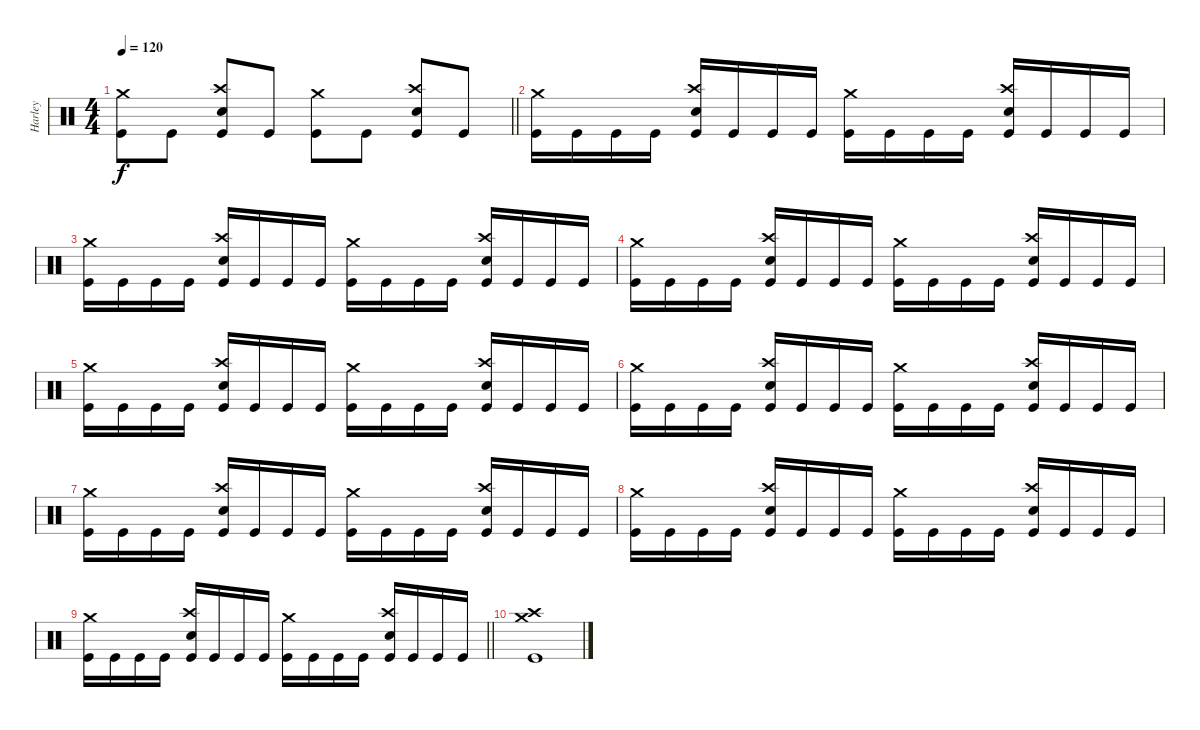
\track ("Harley" "Harley") {instrument percussion}
\staff {score}
\articulation defaults
\ts (4 4)
\tempo 120
\clef neutral
\barLineRight lightlight
\ks c
("Crash medium (hit)" "Kick (hit)").8{dy f} "Kick (hit)".8 ("Crash high (hit)" "Snare (hit) 2" "Kick (hit)").8 "Kick (hit)".8 ("Crash medium (hit)" "Kick (hit)").8 "Kick (hit)".8 ("Crash high (hit)" "Snare (hit) 2" "Kick (hit)").8 "Kick (hit)".8 |
("Crash medium (hit)" "Kick (hit)").16 "Kick (hit)".16 "Kick (hit)".16 "Kick (hit)".16 ("Crash high (hit)" "Snare (hit) 2" "Kick (hit)").16 "Kick (hit)".16 "Kick (hit)".16 "Kick (hit)".16 ("Crash medium (hit)" "Kick (hit)").16 "Kick (hit)".16 "Kick (hit)".16 "Kick (hit)".16 ("Crash high (hit)" "Snare (hit) 2" "Kick (hit)").16 "Kick (hit)".16 "Kick (hit)".16 "Kick (hit)".16 |
("Crash medium (hit)" "Kick (hit)").16 "Kick (hit)".16 "Kick (hit)".16 "Kick (hit)".16 ("Crash high (hit)" "Snare (hit) 2" "Kick (hit)").16 "Kick (hit)".16 "Kick (hit)".16 "Kick (hit)".16 ("Crash medium (hit)" "Kick (hit)").16 "Kick (hit)".16 "Kick (hit)".16 "Kick (hit)".16 ("Crash high (hit)" "Snare (hit) 2" "Kick (hit)").16 "Kick (hit)".16 "Kick (hit)".16 "Kick (hit)".16 |
("Crash medium (hit)" "Kick (hit)").16 "Kick (hit)".16 "Kick (hit)".16 "Kick (hit)".16 ("Crash high (hit)" "Snare (hit) 2" "Kick (hit)").16 "Kick (hit)".16 "Kick (hit)".16 "Kick (hit)".16 ("Crash medium (hit)" "Kick (hit)").16 "Kick (hit)".16 "Kick (hit)".16 "Kick (hit)".16 ("Crash high (hit)" "Snare (hit) 2" "Kick (hit)").16 "Kick (hit)".16 "Kick (hit)".16 "Kick (hit)".16 |
("Crash medium (hit)" "Kick (hit)").16 "Kick (hit)".16 "Kick (hit)".16 "Kick (hit)".16 ("Crash high (hit)" "Snare (hit) 2" "Kick (hit)").16 "Kick (hit)".16 "Kick (hit)".16 "Kick (hit)".16 ("Crash medium (hit)" "Kick (hit)").16 "Kick (hit)".16 "Kick (hit)".16 "Kick (hit)".16 ("Crash high (hit)" "Snare (hit) 2" "Kick (hit)").16 "Kick (hit)".16 "Kick (hit)".16 "Kick (hit)".16 |
("Crash medium (hit)" "Kick (hit)").16 "Kick (hit)".16 "Kick (hit)".16 "Kick (hit)".16 ("Crash high (hit)" "Snare (hit) 2" "Kick (hit)").16 "Kick (hit)".16 "Kick (hit)".16 "Kick (hit)".16 ("Crash medium (hit)" "Kick (hit)").16 "Kick (hit)".16 "Kick (hit)".16 "Kick (hit)".16 ("Crash high (hit)" "Snare (hit) 2" "Kick (hit)").16 "Kick (hit)".16 "Kick (hit)".16 "Kick (hit)".16 |
("Crash medium (hit)" "Kick (hit)").16 "Kick (hit)".16 "Kick (hit)".16 "Kick (hit)".16 ("Crash high (hit)" "Snare (hit) 2" "Kick (hit)").16 "Kick (hit)".16 "Kick (hit)".16 "Kick (hit)".16 ("Crash medium (hit)" "Kick (hit)").16 "Kick (hit)".16 "Kick (hit)".16 "Kick (hit)".16 ("Crash high (hit)" "Snare (hit) 2" "Kick (hit)").16 "Kick (hit)".16 "Kick (hit)".16 "Kick (hit)".16 |
("Crash medium (hit)" "Kick (hit)").16 "Kick (hit)".16 "Kick (hit)".16 "Kick (hit)".16 ("Crash high (hit)" "Snare (hit) 2" "Kick (hit)").16 "Kick (hit)".16 "Kick (hit)".16 "Kick (hit)".16 ("Crash medium (hit)" "Kick (hit)").16 "Kick (hit)".16 "Kick (hit)".16 "Kick (hit)".16 ("Crash high (hit)" "Snare (hit) 2" "Kick (hit)").16 "Kick (hit)".16 "Kick (hit)".16 "Kick (hit)".16 |
\barLineRight lightlight
("Crash medium (hit)" "Kick (hit)").16 "Kick (hit)".16 "Kick (hit)".16 "Kick (hit)".16 ("Crash high (hit)" "Snare (hit) 2" "Kick (hit)").16 "Kick (hit)".16 "Kick (hit)".16 "Kick (hit)".16 ("Crash medium (hit)" "Kick (hit)").16 "Kick (hit)".16 "Kick (hit)".16 "Kick (hit)".16 ("Crash high (hit)" "Snare (hit) 2" "Kick (hit)").16 "Kick (hit)".16 "Kick (hit)".16 "Kick (hit)".16 |
("Crash medium (hit)" "Crash high (hit)" "Kick (hit)").1
